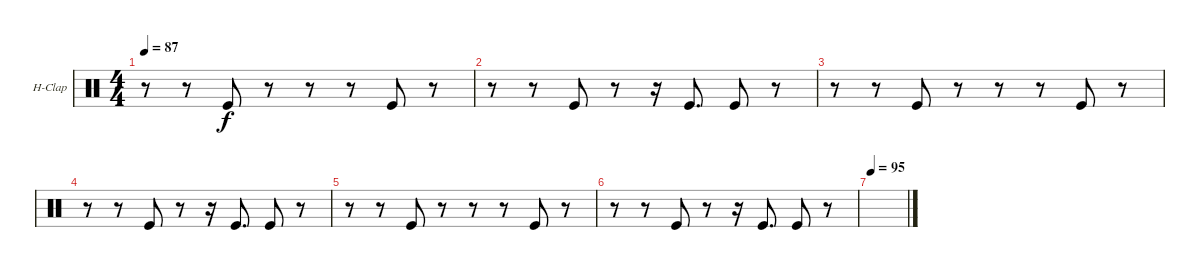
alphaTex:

\defaultSystemsLayout 4
\bracketExtendMode groupsimilarinstruments
\firstSystemTrackNameOrientation horizontal
\otherSystemsTrackNameOrientation horizontal
\track ("Hand Clap" "H-Clap") {instrument percussion}
\staff {score}
\articulation defaults
\ts (4 4)
\tempo 87
\clef neutral
\ks c
r.8{dy f} r.8 "Kick (hit)".8 r.8 r.8 r.8 "Kick (hit)".8 r.8 |
r.8 r.8 "Kick (hit)".8 r.8 r.16 "Kick (hit)".8{d} "Kick (hit)".8 r.8 |
r.8 r.8 "Kick (hit)".8 r.8 r.8 r.8 "Kick (hit)".8 r.8 |
r.8 r.8 "Kick (hit)".8 r.8 r.16 "Kick (hit)".8{d} "Kick (hit)".8 r.8 |
r.8 r.8 "Kick (hit)".8 r.8 r.8 r.8 "Kick (hit)".8 r.8 |
r.8 r.8 "Kick (hit)".8 r.8 r.16 "Kick (hit)".8{d} "Kick (hit)".8 r.8 |
\tempo 95
